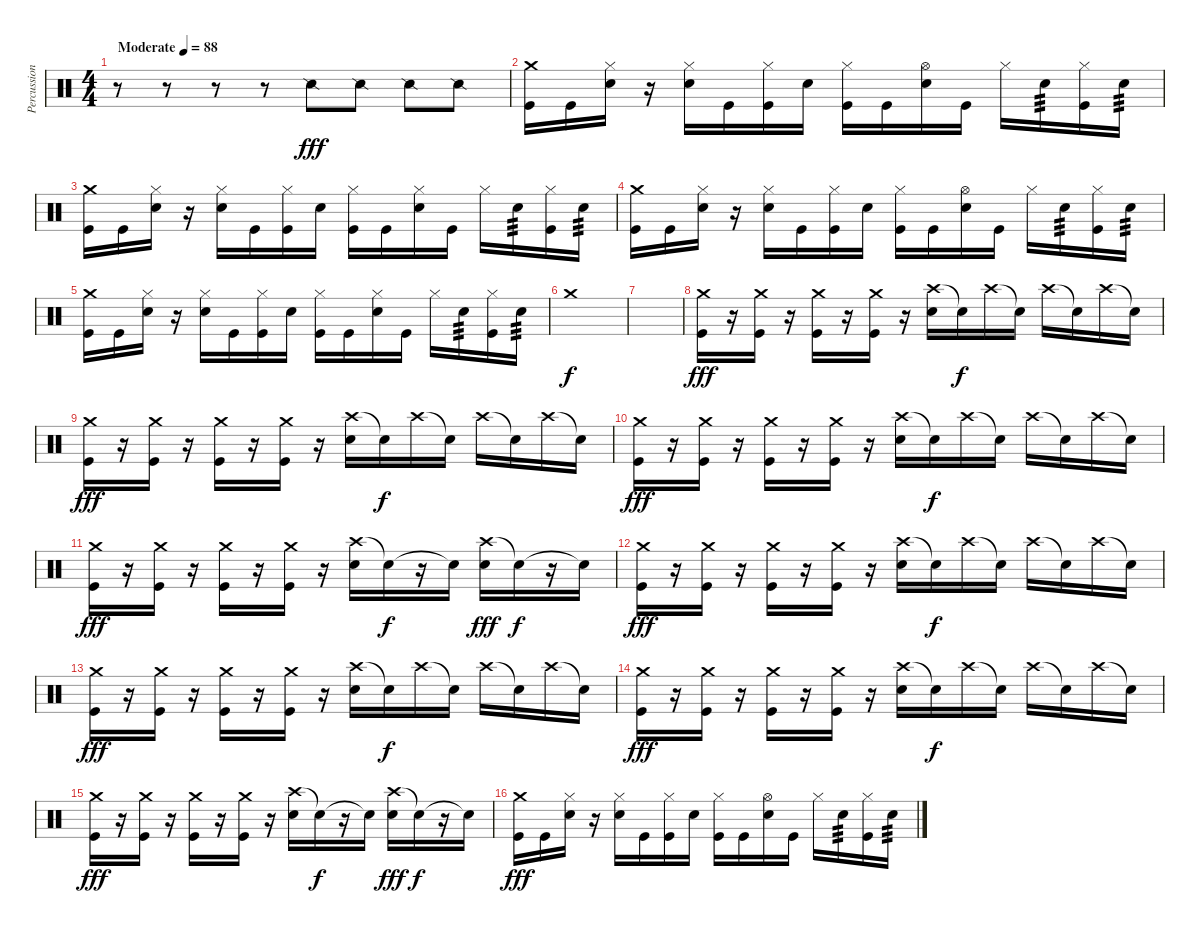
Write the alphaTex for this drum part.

\track ("Percussions" "Percussion") {instrument percussion}
\staff {score}
\articulation defaults
\ts (4 4)
\tempo (88 "Moderate")
\clef neutral
\ks c
r.8{dy fff} r.8 r.8 r.8 "Snare (side stick) 2".8 "Snare (side stick) 2".8 "Snare (side stick) 2".8 "Snare (side stick) 2".8 |
("Crash medium (hit)" "Kick (hit)").16 "Kick (hit)".16 ("Hi-Hat (closed)" "Snare (hit) 2").16 r.16 ("Hi-Hat (closed)" "Snare (hit) 2").16 "Kick (hit)".16 ("Hi-Hat (closed)" "Kick (hit)").16 "Snare (hit) 2".16 ("Hi-Hat (closed)" "Kick (hit)").16 "Kick (hit)".16 ("Hi-Hat (open)" "Snare (hit) 2").16 "Kick (hit)".16 "Hi-Hat (closed)".16 "Snare (hit) 2".16{tp 3} ("Hi-Hat (closed)" "Kick (hit)").16 "Snare (hit) 2".16{tp 3} |
("Crash medium (hit)" "Kick (hit)").16 "Kick (hit)".16 ("Hi-Hat (closed)" "Snare (hit) 2").16 r.16 ("Hi-Hat (closed)" "Snare (hit) 2").16 "Kick (hit)".16 ("Hi-Hat (closed)" "Kick (hit)").16 "Snare (hit) 2".16 ("Hi-Hat (closed)" "Kick (hit)").16 "Kick (hit)".16 ("Hi-Hat (closed)" "Snare (hit) 2").16 "Kick (hit)".16 "Hi-Hat (closed)".16 "Snare (hit) 2".16{tp 3} ("Hi-Hat (closed)" "Kick (hit)").16 "Snare (hit) 2".16{tp 3} |
("Crash medium (hit)" "Kick (hit)").16 "Kick (hit)".16 ("Hi-Hat (closed)" "Snare (hit) 2").16 r.16 ("Hi-Hat (closed)" "Snare (hit) 2").16 "Kick (hit)".16 ("Hi-Hat (closed)" "Kick (hit)").16 "Snare (hit) 2".16 ("Hi-Hat (closed)" "Kick (hit)").16 "Kick (hit)".16 ("Hi-Hat (open)" "Snare (hit) 2").16 "Kick (hit)".16 "Hi-Hat (closed)".16 "Snare (hit) 2".16{tp 3} ("Hi-Hat (closed)" "Kick (hit)").16 "Snare (hit) 2".16{tp 3} |
("Crash medium (hit)" "Kick (hit)").16 "Kick (hit)".16 ("Hi-Hat (closed)" "Snare (hit) 2").16 r.16 ("Hi-Hat (closed)" "Snare (hit) 2").16 "Kick (hit)".16 ("Hi-Hat (closed)" "Kick (hit)").16 "Snare (hit) 2".16 ("Hi-Hat (closed)" "Kick (hit)").16 "Kick (hit)".16 ("Hi-Hat (closed)" "Snare (hit) 2").16 "Kick (hit)".16 "Hi-Hat (closed)".16 "Snare (hit) 2".16{tp 3} ("Hi-Hat (closed)" "Kick (hit)").16 "Snare (hit) 2".16{tp 3} |
"Crash medium (hit)".1{dy f} |
|
("Crash medium (hit)" "Kick (hit)").16{dy fff} r.16 ("Crash medium (hit)" "Kick (hit)").16 r.16 ("Crash medium (hit)" "Kick (hit)").16 r.16 ("Crash medium (hit)" "Kick (hit)").16 r.16 ("Crash high (hit)" "Snare (hit) 2").16 "Snare (hit)"{t}.16{dy f} "Crash high (hit)".16 "Snare (hit)"{t}.16 "Crash high (hit)".16 "Snare (hit)"{t}.16 "Crash high (hit)".16 "Snare (hit)"{t}.16 |
("Crash medium (hit)" "Kick (hit)").16{dy fff} r.16 ("Crash medium (hit)" "Kick (hit)").16 r.16 ("Crash medium (hit)" "Kick (hit)").16 r.16 ("Crash medium (hit)" "Kick (hit)").16 r.16 ("Crash high (hit)" "Snare (hit) 2").16 "Snare (hit)"{t}.16{dy f} "Crash high (hit)".16 "Snare (hit)"{t}.16 "Crash high (hit)".16 "Snare (hit)"{t}.16 "Crash high (hit)".16 "Snare (hit)"{t}.16 |
("Crash medium (hit)" "Kick (hit)").16{dy fff} r.16 ("Crash medium (hit)" "Kick (hit)").16 r.16 ("Crash medium (hit)" "Kick (hit)").16 r.16 ("Crash medium (hit)" "Kick (hit)").16 r.16 ("Crash high (hit)" "Snare (hit) 2").16 "Snare (hit)"{t}.16{dy f} "Crash high (hit)".16 "Snare (hit)"{t}.16 "Crash high (hit)".16 "Snare (hit)"{t}.16 "Crash high (hit)".16 "Snare (hit)"{t}.16 |
("Crash medium (hit)" "Kick (hit)").16{dy fff} r.16 ("Crash medium (hit)" "Kick (hit)").16 r.16 ("Crash medium (hit)" "Kick (hit)").16 r.16 ("Crash medium (hit)" "Kick (hit)").16 r.16 ("Crash high (hit)" "Snare (hit) 2").16 "Snare (hit)"{t}.16{dy f} r.16 "Snare (hit)"{t}.16 ("Crash high (hit)" "Snare (hit) 2").16{dy fff} "Snare (hit)"{t}.16{dy f} r.16 "Snare (hit)"{t}.16 |
("Crash medium (hit)" "Kick (hit)").16{dy fff} r.16 ("Crash medium (hit)" "Kick (hit)").16 r.16 ("Crash medium (hit)" "Kick (hit)").16 r.16 ("Crash medium (hit)" "Kick (hit)").16 r.16 ("Crash high (hit)" "Snare (hit) 2").16 "Snare (hit)"{t}.16{dy f} "Crash high (hit)".16 "Snare (hit)"{t}.16 "Crash high (hit)".16 "Snare (hit)"{t}.16 "Crash high (hit)".16 "Snare (hit)"{t}.16 |
("Crash medium (hit)" "Kick (hit)").16{dy fff} r.16 ("Crash medium (hit)" "Kick (hit)").16 r.16 ("Crash medium (hit)" "Kick (hit)").16 r.16 ("Crash medium (hit)" "Kick (hit)").16 r.16 ("Crash high (hit)" "Snare (hit) 2").16 "Snare (hit)"{t}.16{dy f} "Crash high (hit)".16 "Snare (hit)"{t}.16 "Crash high (hit)".16 "Snare (hit)"{t}.16 "Crash high (hit)".16 "Snare (hit)"{t}.16 |
("Crash medium (hit)" "Kick (hit)").16{dy fff} r.16 ("Crash medium (hit)" "Kick (hit)").16 r.16 ("Crash medium (hit)" "Kick (hit)").16 r.16 ("Crash medium (hit)" "Kick (hit)").16 r.16 ("Crash high (hit)" "Snare (hit) 2").16 "Snare (hit)"{t}.16{dy f} "Crash high (hit)".16 "Snare (hit)"{t}.16 "Crash high (hit)".16 "Snare (hit)"{t}.16 "Crash high (hit)".16 "Snare (hit)"{t}.16 |
("Crash medium (hit)" "Kick (hit)").16{dy fff} r.16 ("Crash medium (hit)" "Kick (hit)").16 r.16 ("Crash medium (hit)" "Kick (hit)").16 r.16 ("Crash medium (hit)" "Kick (hit)").16 r.16 ("Crash high (hit)" "Snare (hit) 2").16 "Snare (hit)"{t}.16{dy f} r.16 "Snare (hit)"{t}.16 ("Crash high (hit)" "Snare (hit) 2").16{dy fff} "Snare (hit)"{t}.16{dy f} r.16 "Snare (hit)"{t}.16 |
("Crash medium (hit)" "Kick (hit)").16{dy fff} "Kick (hit)".16 ("Hi-Hat (closed)" "Snare (hit) 2").16 r.16 ("Hi-Hat (closed)" "Snare (hit) 2").16 "Kick (hit)".16 ("Hi-Hat (closed)" "Kick (hit)").16 "Snare (hit) 2".16 ("Hi-Hat (closed)" "Kick (hit)").16 "Kick (hit)".16 ("Hi-Hat (open)" "Snare (hit) 2").16 "Kick (hit)".16 "Hi-Hat (closed)".16 "Snare (hit) 2".16{tp 3} ("Hi-Hat (closed)" "Kick (hit)").16 "Snare (hit) 2".16{tp 3}
